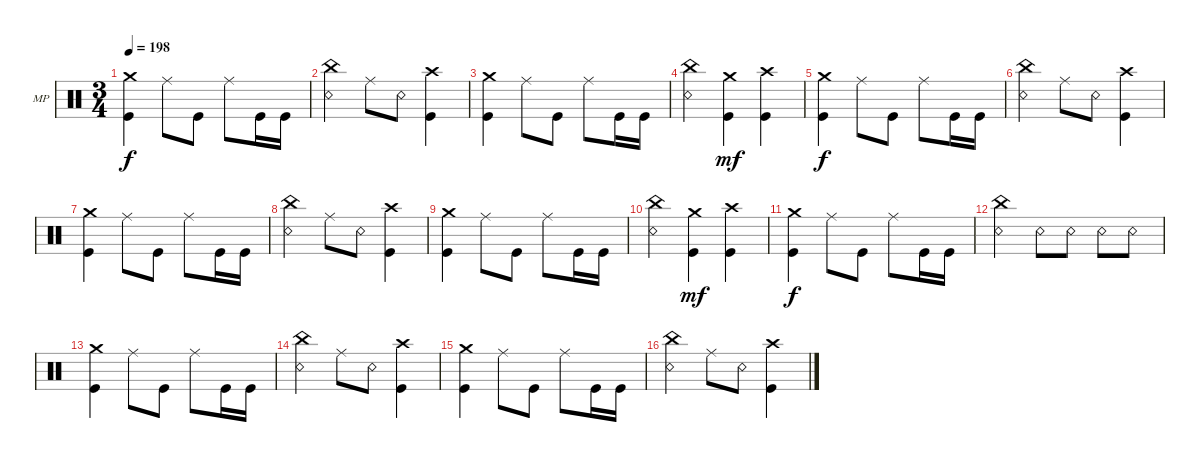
\defaultSystemsLayout 4
\bracketExtendMode groupsimilarinstruments
\firstSystemTrackNameOrientation horizontal
\otherSystemsTrackNameOrientation horizontal
\track ("Mike Portnoy" "MP") {instrument percussion}
\staff {score}
\articulation defaults
\ts (3 4)
\tempo 198
\clef neutral
\ks c
("Crash medium (hit)" "Kick (hit)").4{dy f} "Ride (middle)".8 "Kick (hit)".8 "Ride (middle)".8 "Kick (hit)".16 "Kick (hit)".16 |
("China (hit)" "Snare (rim shot)").4 "Ride (middle)".8 "Snare (rim shot)".8 ("Crash high (hit)" "Kick (hit)").4 |
("Crash medium (hit)" "Kick (hit)").4 "Ride (middle)".8 "Kick (hit)".8 "Ride (middle)".8 "Kick (hit)".16 "Kick (hit)".16 |
("China (hit)" "Snare (rim shot)").4 ("Crash medium (hit)" "Kick (hit)").4{dy mf} ("Crash high (hit)" "Kick (hit)").4 |
("Crash medium (hit)" "Kick (hit)").4{dy f} "Ride (middle)".8 "Kick (hit)".8 "Ride (middle)".8 "Kick (hit)".16 "Kick (hit)".16 |
("China (hit)" "Snare (rim shot)").4 "Ride (middle)".8 "Snare (rim shot)".8 ("Crash high (hit)" "Kick (hit)").4 |
("Crash medium (hit)" "Kick (hit)").4 "Ride (middle)".8 "Kick (hit)".8 "Ride (middle)".8 "Kick (hit)".16 "Kick (hit)".16 |
("China (hit)" "Snare (rim shot)").4 "Ride (middle)".8 "Snare (rim shot)".8 ("Crash high (hit)" "Kick (hit)").4 |
("Crash medium (hit)" "Kick (hit)").4 "Ride (middle)".8 "Kick (hit)".8 "Ride (middle)".8 "Kick (hit)".16 "Kick (hit)".16 |
("China (hit)" "Snare (rim shot)").4 ("Crash medium (hit)" "Kick (hit)").4{dy mf} ("Crash high (hit)" "Kick (hit)").4 |
("Crash medium (hit)" "Kick (hit)").4{dy f} "Ride (middle)".8 "Kick (hit)".8 "Ride (middle)".8 "Kick (hit)".16 "Kick (hit)".16 |
("China (hit)" "Snare (rim shot)").4 "Snare (rim shot)".8 "Snare (rim shot)".8 "Snare (rim shot)".8 "Snare (rim shot)".8 |
("Crash medium (hit)" "Kick (hit)").4 "Ride (middle)".8 "Kick (hit)".8 "Ride (middle)".8 "Kick (hit)".16 "Kick (hit)".16 |
("China (hit)" "Snare (rim shot)").4 "Ride (middle)".8 "Snare (rim shot)".8 ("Crash high (hit)" "Kick (hit)").4 |
("Crash medium (hit)" "Kick (hit)").4 "Ride (middle)".8 "Kick (hit)".8 "Ride (middle)".8 "Kick (hit)".16 "Kick (hit)".16 |
("China (hit)" "Snare (rim shot)").4 "Ride (middle)".8 "Snare (rim shot)".8 ("Crash high (hit)" "Kick (hit)").4
